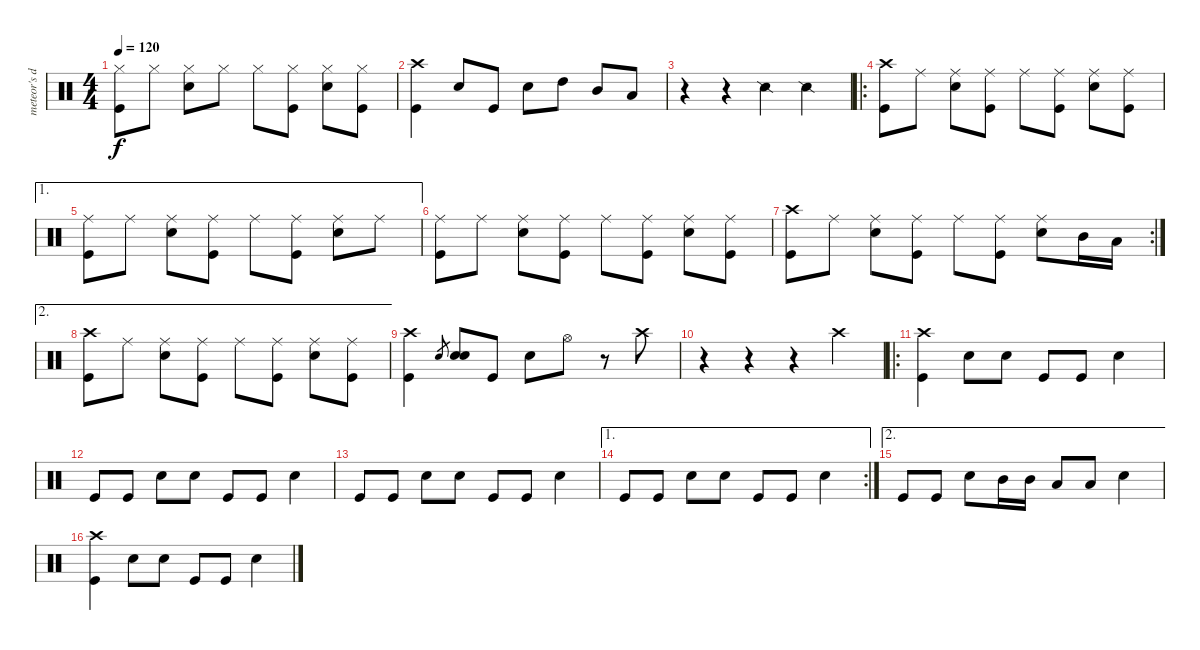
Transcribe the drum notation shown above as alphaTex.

\track ("meteor's drum:)" "meteor's d") {instrument percussion}
\staff {score}
\articulation defaults
\ts (4 4)
\tempo 120
\clef neutral
\ks c
("Kick (hit)" "Hi-Hat (closed)").8{dy f} "Hi-Hat (closed)".8 ("Hi-Hat (closed)" "Snare (hit) 2").8 "Hi-Hat (closed)".8 "Hi-Hat (closed)".8 ("Hi-Hat (closed)" "Kick (hit)").8 ("Hi-Hat (closed)" "Snare (hit) 2").8 ("Hi-Hat (closed)" "Kick (hit)").8 |
("Kick (hit)" "Crash high (hit)").4 "Snare (hit) 2".8 "Kick (hit)".8 "Snare (hit) 2".8 "High Tom (hit)".8 "Mid Tom (hit)".8 "Low Tom (hit)".8 |
r.4 r.4 "Snare (side stick) 2".4 "Snare (side stick) 2".4 |
\ro
("Crash high (hit)" "Kick (hit)").8 "Ride (middle)".8 ("Snare (hit) 2" "Ride (middle)").8 ("Kick (hit)" "Ride (middle)").8 "Ride (middle)".8 ("Kick (hit)" "Ride (middle)").8 ("Ride (middle)" "Snare (hit) 2").8 ("Kick (hit)" "Ride (middle)").8 |
\ae 1
("Ride (middle)" "Kick (hit)").8 "Ride (middle)".8 ("Snare (hit) 2" "Ride (middle)").8 ("Kick (hit)" "Ride (middle)").8 "Ride (middle)".8 ("Kick (hit)" "Ride (middle)").8 ("Ride (middle)" "Snare (hit) 2").8 "Ride (middle)".8 |
("Ride (middle)" "Kick (hit)").8 "Ride (middle)".8 ("Snare (hit) 2" "Ride (middle)").8 ("Kick (hit)" "Ride (middle)").8 "Ride (middle)".8 ("Kick (hit)" "Ride (middle)").8 ("Ride (middle)" "Snare (hit) 2").8 ("Kick (hit)" "Ride (middle)").8 |
\rc 2
("Crash high (hit)" "Kick (hit)").8 "Ride (middle)".8 ("Snare (hit) 2" "Ride (middle)").8 ("Kick (hit)" "Ride (middle)").8 "Ride (middle)".8 ("Kick (hit)" "Ride (middle)").8 ("Ride (middle)" "Snare (hit) 2").8 "Mid Tom (hit)".16 "Low Tom (hit)".16 |
\ae 2
("Crash high (hit)" "Kick (hit)").8 "Ride (middle)".8 ("Snare (hit) 2" "Ride (middle)").8 ("Kick (hit)" "Ride (middle)").8 "Ride (middle)".8 ("Kick (hit)" "Ride (middle)").8 ("Ride (middle)" "Snare (hit) 2").8 ("Kick (hit)" "Ride (middle)").8 |
("Crash high (hit)" "Kick (hit)").4 "Snare (hit) 2".8{gr} ("Snare (hit) 2" "Snare (hit) 2").8 "Kick (hit)".8 "Snare (hit) 2".8 "Hi-Hat (open)".8 r.8 "Crash high (hit)".8 |
r.4 r.4 r.4 "Crash high (hit)".4 |
\ro
("Kick (hit)" "Crash high (hit)").4 "Snare (hit) 2".8 "Snare (hit) 2".8 "Kick (hit)".8 "Kick (hit)".8 "Snare (hit) 2".4 |
"Kick (hit)".8 "Kick (hit)".8 "Snare (hit) 2".8 "Snare (hit) 2".8 "Kick (hit)".8 "Kick (hit)".8 "Snare (hit) 2".4 |
"Kick (hit)".8 "Kick (hit)".8 "Snare (hit) 2".8 "Snare (hit) 2".8 "Kick (hit)".8 "Kick (hit)".8 "Snare (hit) 2".4 |
\ae 1
\rc 2 "Kick (hit)".8 "Kick (hit)".8 "Snare (hit) 2".8 "Snare (hit) 2".8 "Kick (hit)".8 "Kick (hit)".8 "Snare (hit) 2".4
|
\ae 2 "Kick (hit)".8 "Kick (hit)".8 "Snare (hit) 2".8 "Mid Tom (hit)".16 "Mid Tom (hit)".16 "Low Tom (hit)".8 "Low Tom (hit)".8 "Snare (hit) 2".4
|
("Kick (hit)" "Crash high (hit)").4 "Snare (hit) 2".8 "Snare (hit) 2".8 "Kick (hit)".8 "Kick (hit)".8 "Snare (hit) 2".4
